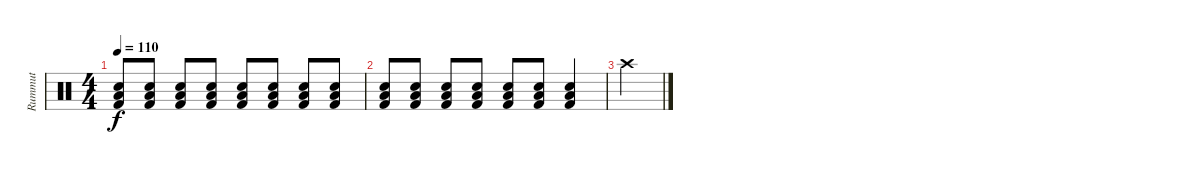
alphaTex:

\track ("Rummut" "Rummut") {instrument percussion}
\staff {score}
\articulation defaults
\ts (4 4)
\tempo 110
\clef neutral
\ks c
("Snare (hit) 2" "Low Floor Tom (hit)" "Kick (hit) 2").8{dy f} ("Snare (hit) 2" "Low Floor Tom (hit)" "Kick (hit) 2").8 ("Snare (hit) 2" "Low Floor Tom (hit)" "Kick (hit) 2").8 ("Snare (hit) 2" "Low Floor Tom (hit)" "Kick (hit) 2").8 ("Snare (hit) 2" "Low Floor Tom (hit)" "Kick (hit) 2").8 ("Snare (hit) 2" "Low Floor Tom (hit)" "Kick (hit) 2").8 ("Snare (hit) 2" "Low Floor Tom (hit)" "Kick (hit) 2").8 ("Snare (hit) 2" "Low Floor Tom (hit)" "Kick (hit) 2").8 |
("Snare (hit) 2" "Low Floor Tom (hit)" "Kick (hit) 2").8 ("Snare (hit) 2" "Low Floor Tom (hit)" "Kick (hit) 2").8 ("Snare (hit) 2" "Low Floor Tom (hit)" "Kick (hit) 2").8 ("Snare (hit) 2" "Low Floor Tom (hit)" "Kick (hit) 2").8 ("Snare (hit) 2" "Low Floor Tom (hit)" "Kick (hit) 2").8 ("Snare (hit) 2" "Low Floor Tom (hit)" "Kick (hit) 2").8 ("Snare (hit) 2" "Low Floor Tom (hit)" "Kick (hit) 2").4 |
"Crash high (hit)".4
